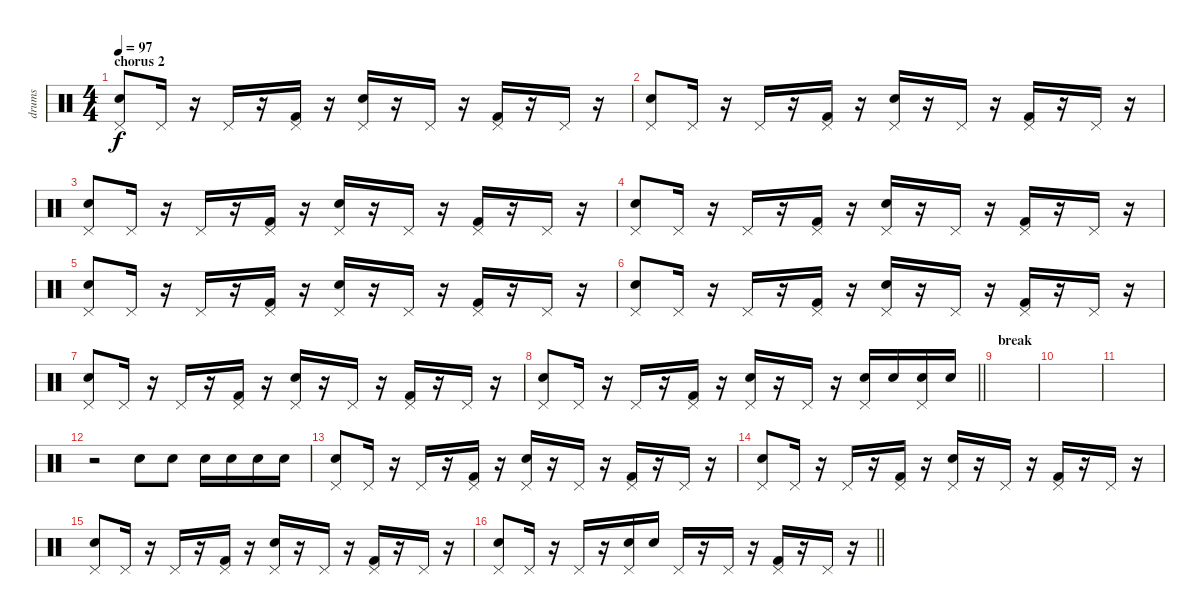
\track ("drums" "drums") {instrument percussion}
\staff {score}
\articulation defaults
\ts (4 4)
\section ("" "chorus 2")
\tempo 97
\clef neutral
\ks c
("Electric Snare (hit)" "Pedal Hi-Hat (hit)").8{dy f} "Pedal Hi-Hat (hit)".16 r.16 "Pedal Hi-Hat (hit)".16 r.16 ("Kick (hit) 2" "Pedal Hi-Hat (hit)").16 r.16 ("Electric Snare (hit)" "Pedal Hi-Hat (hit)").16 r.16 "Pedal Hi-Hat (hit)".16 r.16 ("Kick (hit) 2" "Pedal Hi-Hat (hit)").16 r.16 "Pedal Hi-Hat (hit)".16 r.16 |
("Electric Snare (hit)" "Pedal Hi-Hat (hit)").8 "Pedal Hi-Hat (hit)".16 r.16 "Pedal Hi-Hat (hit)".16 r.16 ("Kick (hit) 2" "Pedal Hi-Hat (hit)").16 r.16 ("Electric Snare (hit)" "Pedal Hi-Hat (hit)").16 r.16 "Pedal Hi-Hat (hit)".16 r.16 ("Kick (hit) 2" "Pedal Hi-Hat (hit)").16 r.16 "Pedal Hi-Hat (hit)".16 r.16 |
("Electric Snare (hit)" "Pedal Hi-Hat (hit)").8 "Pedal Hi-Hat (hit)".16 r.16 "Pedal Hi-Hat (hit)".16 r.16 ("Kick (hit) 2" "Pedal Hi-Hat (hit)").16 r.16 ("Electric Snare (hit)" "Pedal Hi-Hat (hit)").16 r.16 "Pedal Hi-Hat (hit)".16 r.16 ("Kick (hit) 2" "Pedal Hi-Hat (hit)").16 r.16 "Pedal Hi-Hat (hit)".16 r.16 |
("Electric Snare (hit)" "Pedal Hi-Hat (hit)").8 "Pedal Hi-Hat (hit)".16 r.16 "Pedal Hi-Hat (hit)".16 r.16 ("Kick (hit) 2" "Pedal Hi-Hat (hit)").16 r.16 ("Electric Snare (hit)" "Pedal Hi-Hat (hit)").16 r.16 "Pedal Hi-Hat (hit)".16 r.16 ("Kick (hit) 2" "Pedal Hi-Hat (hit)").16 r.16 "Pedal Hi-Hat (hit)".16 r.16 |
("Electric Snare (hit)" "Pedal Hi-Hat (hit)").8 "Pedal Hi-Hat (hit)".16 r.16 "Pedal Hi-Hat (hit)".16 r.16 ("Kick (hit) 2" "Pedal Hi-Hat (hit)").16 r.16 ("Electric Snare (hit)" "Pedal Hi-Hat (hit)").16 r.16 "Pedal Hi-Hat (hit)".16 r.16 ("Kick (hit) 2" "Pedal Hi-Hat (hit)").16 r.16 "Pedal Hi-Hat (hit)".16 r.16 |
("Electric Snare (hit)" "Pedal Hi-Hat (hit)").8 "Pedal Hi-Hat (hit)".16 r.16 "Pedal Hi-Hat (hit)".16 r.16 ("Kick (hit) 2" "Pedal Hi-Hat (hit)").16 r.16 ("Electric Snare (hit)" "Pedal Hi-Hat (hit)").16 r.16 "Pedal Hi-Hat (hit)".16 r.16 ("Kick (hit) 2" "Pedal Hi-Hat (hit)").16 r.16 "Pedal Hi-Hat (hit)".16 r.16 |
("Electric Snare (hit)" "Pedal Hi-Hat (hit)").8 "Pedal Hi-Hat (hit)".16 r.16 "Pedal Hi-Hat (hit)".16 r.16 ("Kick (hit) 2" "Pedal Hi-Hat (hit)").16 r.16 ("Electric Snare (hit)" "Pedal Hi-Hat (hit)").16 r.16 "Pedal Hi-Hat (hit)".16 r.16 ("Kick (hit) 2" "Pedal Hi-Hat (hit)").16 r.16 "Pedal Hi-Hat (hit)".16 r.16 |
\barLineRight lightlight
("Electric Snare (hit)" "Pedal Hi-Hat (hit)").8 "Pedal Hi-Hat (hit)".16 r.16 "Pedal Hi-Hat (hit)".16 r.16 ("Kick (hit) 2" "Pedal Hi-Hat (hit)").16 r.16 ("Electric Snare (hit)" "Pedal Hi-Hat (hit)").16 r.16 "Pedal Hi-Hat (hit)".16 r.16 ("Electric Snare (hit)" "Pedal Hi-Hat (hit)").16 "Electric Snare (hit)".16 ("Electric Snare (hit)" "Pedal Hi-Hat (hit)").16 "Electric Snare (hit)".16 |
\section ("" "break")
|
|
|
r.2 "Electric Snare (hit)".8 "Electric Snare (hit)".8 "Electric Snare (hit)".16 "Electric Snare (hit)".16 "Electric Snare (hit)".16 "Electric Snare (hit)".16 |
("Electric Snare (hit)" "Pedal Hi-Hat (hit)").8 "Pedal Hi-Hat (hit)".16 r.16 "Pedal Hi-Hat (hit)".16 r.16 ("Kick (hit) 2" "Pedal Hi-Hat (hit)").16 r.16 ("Electric Snare (hit)" "Pedal Hi-Hat (hit)").16 r.16 "Pedal Hi-Hat (hit)".16 r.16 ("Kick (hit) 2" "Pedal Hi-Hat (hit)").16 r.16 "Pedal Hi-Hat (hit)".16 r.16 |
("Electric Snare (hit)" "Pedal Hi-Hat (hit)").8 "Pedal Hi-Hat (hit)".16 r.16 "Pedal Hi-Hat (hit)".16 r.16 ("Kick (hit) 2" "Pedal Hi-Hat (hit)").16 r.16 ("Electric Snare (hit)" "Pedal Hi-Hat (hit)").16 r.16 "Pedal Hi-Hat (hit)".16 r.16 ("Kick (hit) 2" "Pedal Hi-Hat (hit)").16 r.16 "Pedal Hi-Hat (hit)".16 r.16 |
("Electric Snare (hit)" "Pedal Hi-Hat (hit)").8 "Pedal Hi-Hat (hit)".16 r.16 "Pedal Hi-Hat (hit)".16 r.16 ("Kick (hit) 2" "Pedal Hi-Hat (hit)").16 r.16 ("Electric Snare (hit)" "Pedal Hi-Hat (hit)").16 r.16 "Pedal Hi-Hat (hit)".16 r.16 ("Kick (hit) 2" "Pedal Hi-Hat (hit)").16 r.16 "Pedal Hi-Hat (hit)".16 r.16 |
\barLineRight lightlight
("Electric Snare (hit)" "Pedal Hi-Hat (hit)").8 "Pedal Hi-Hat (hit)".16 r.16 "Pedal Hi-Hat (hit)".16 r.16 ("Electric Snare (hit)" "Pedal Hi-Hat (hit)").16 "Electric Snare (hit)".16 "Pedal Hi-Hat (hit)".16 r.16 "Pedal Hi-Hat (hit)".16 r.16 ("Kick (hit) 2" "Pedal Hi-Hat (hit)").16 r.16 "Pedal Hi-Hat (hit)".16 r.16
